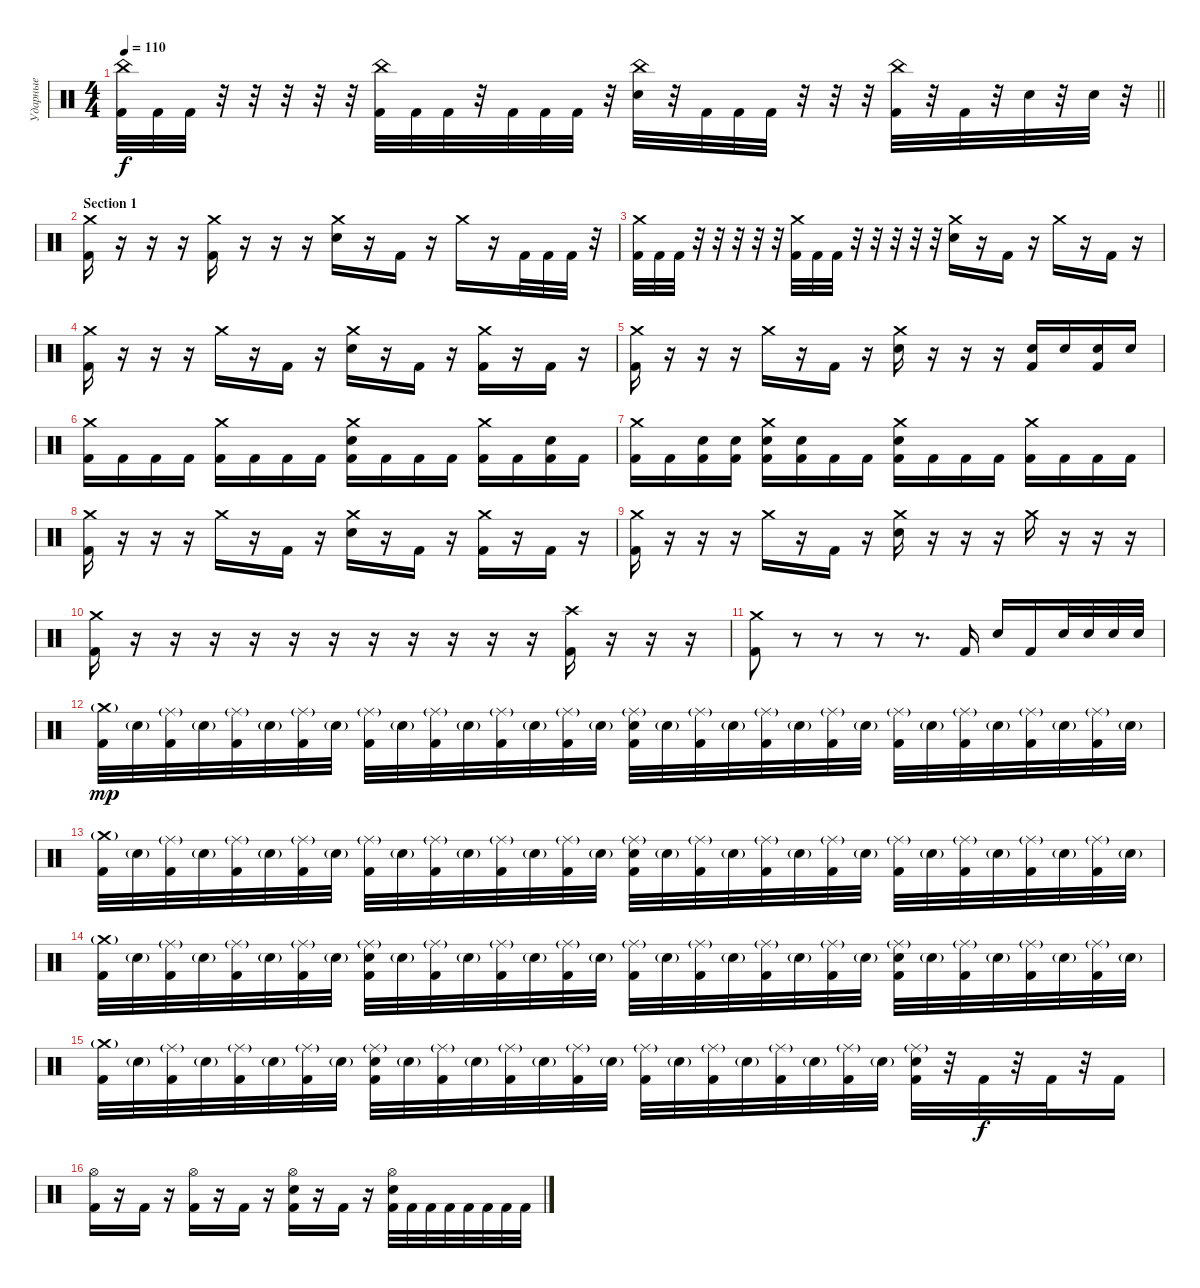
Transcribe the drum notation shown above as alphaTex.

\track ("Ударные" "Ударные") {instrument percussion}
\staff {score}
\articulation defaults
\ts (4 4)
\tempo 110
\clef neutral
\barLineRight lightlight
\ks c
("Kick (hit) 2" "China (hit)").32{dy f} "Kick (hit) 2".32 "Kick (hit) 2".32 r.32 r.32 r.32 r.32 r.32 ("Kick (hit) 2" "China (hit)").32 "Kick (hit) 2".32 "Kick (hit) 2".32 r.32 "Kick (hit) 2".32 "Kick (hit) 2".32 "Kick (hit) 2".32 r.32 ("Electric Snare (hit)" "China (hit)").32 r.32 "Kick (hit) 2".32 "Kick (hit) 2".32 "Kick (hit) 2".32 r.32 r.32 r.32 ("Kick (hit) 2" "China (hit)").32 r.32 "Kick (hit) 2".32 r.32 "Electric Snare (hit)".32 r.32 "Electric Snare (hit)".32 r.32 |
\section ("" "Section 1")
("Crash medium (hit)" "Kick (hit) 2").16 r.16 r.16 r.16 ("Crash medium (hit)" "Kick (hit) 2").16 r.16 r.16 r.16 ("Crash medium (hit)" "Electric Snare (hit)").16 r.16 "Kick (hit) 2".16 r.16 "Crash medium (hit)".16 r.16 "Kick (hit) 2".32 "Kick (hit) 2".32 "Kick (hit) 2".32 r.32 |
("Crash medium (hit)" "Kick (hit) 2").32 "Kick (hit) 2".32 "Kick (hit) 2".32 r.32 r.32 r.32 r.32 r.32 ("Crash medium (hit)" "Kick (hit) 2").32 "Kick (hit) 2".32 "Kick (hit) 2".32 r.32 r.32 r.32 r.32 r.32 ("Crash medium (hit)" "Electric Snare (hit)").16 r.16 "Kick (hit) 2".16 r.16 "Crash medium (hit)".16 r.16 "Kick (hit) 2".16 r.16 |
("Crash medium (hit)" "Kick (hit) 2").16 r.16 r.16 r.16 "Crash medium (hit)".16 r.16 "Kick (hit) 2".16 r.16 ("Crash medium (hit)" "Electric Snare (hit)").16 r.16 "Kick (hit) 2".16 r.16 ("Crash medium (hit)" "Kick (hit) 2").16 r.16 "Kick (hit) 2".16 r.16 |
("Crash medium (hit)" "Kick (hit) 2").16 r.16 r.16 r.16 "Crash medium (hit)".16 r.16 "Kick (hit) 2".16 r.16 ("Crash medium (hit)" "Electric Snare (hit)").16 r.16 r.16 r.16 ("Electric Snare (hit)" "Kick (hit) 2").16 "Electric Snare (hit)".16 ("Electric Snare (hit)" "Kick (hit) 2").16 "Electric Snare (hit)".16 |
("Crash medium (hit)" "Kick (hit) 2").16 "Kick (hit) 2".16 "Kick (hit) 2".16 "Kick (hit) 2".16 ("Crash medium (hit)" "Kick (hit) 2").16 "Kick (hit) 2".16 "Kick (hit) 2".16 "Kick (hit) 2".16 ("Crash medium (hit)" "Electric Snare (hit)" "Kick (hit) 2").16 "Kick (hit) 2".16 "Kick (hit) 2".16 "Kick (hit) 2".16 ("Crash medium (hit)" "Kick (hit) 2").16 "Kick (hit) 2".16 ("Electric Snare (hit)" "Kick (hit) 2").16 "Kick (hit) 2".16 |
("Crash medium (hit)" "Kick (hit) 2").16 "Kick (hit) 2".16 ("Electric Snare (hit)" "Kick (hit) 2").16 ("Electric Snare (hit)" "Kick (hit) 2").16 ("Crash medium (hit)" "Electric Snare (hit)" "Kick (hit) 2").16 ("Electric Snare (hit)" "Kick (hit) 2").16 "Kick (hit) 2".16 "Kick (hit) 2".16 ("Crash medium (hit)" "Electric Snare (hit)" "Kick (hit) 2").16 "Kick (hit) 2".16 "Kick (hit) 2".16 "Kick (hit) 2".16 ("Crash medium (hit)" "Kick (hit) 2").16 "Kick (hit) 2".16 "Kick (hit) 2".16 "Kick (hit) 2".16 |
("Crash medium (hit)" "Kick (hit) 2").16 r.16 r.16 r.16 "Crash medium (hit)".16 r.16 "Kick (hit) 2".16 r.16 ("Crash medium (hit)" "Electric Snare (hit)").16 r.16 "Kick (hit) 2".16 r.16 ("Crash medium (hit)" "Kick (hit) 2").16 r.16 "Kick (hit) 2".16 r.16 |
("Crash medium (hit)" "Kick (hit) 2").16 r.16 r.16 r.16 "Crash medium (hit)".16 r.16 "Kick (hit) 2".16 r.16 ("Crash medium (hit)" "Electric Snare (hit)").16 r.16 r.16 r.16 "Crash medium (hit)".16 r.16 r.16 r.16 |
("Crash medium (hit)" "Kick (hit) 2").16 r.16 r.16 r.16 r.16 r.16 r.16 r.16 r.16 r.16 r.16 r.16 ("Crash high (hit)" "Kick (hit) 2").16 r.16 r.16 r.16 |
("Crash medium (hit)" "Kick (hit) 2").8 r.8 r.8 r.8 r.8{d} "Kick (hit) 2".16 "Electric Snare (hit)".16 "Kick (hit) 2".16 "Electric Snare (hit)".32 "Electric Snare (hit)".32 "Electric Snare (hit)".32 "Electric Snare (hit)".32 |
("Crash medium (hit)"{g} "Kick (hit) 2").32{dy mp} "Electric Snare (hit)"{g}.32 ("Ride (middle)"{g} "Kick (hit) 2").32 "Electric Snare (hit)"{g}.32 ("Ride (middle)"{g} "Kick (hit) 2").32 "Electric Snare (hit)"{g}.32 ("Ride (middle)"{g} "Kick (hit) 2").32 "Electric Snare (hit)"{g}.32 ("Ride (middle)"{g} "Kick (hit) 2").32 "Electric Snare (hit)"{g}.32 ("Ride (middle)"{g} "Kick (hit) 2").32 "Electric Snare (hit)"{g}.32 ("Ride (middle)"{g} "Kick (hit) 2").32 "Electric Snare (hit)"{g}.32 ("Ride (middle)"{g} "Kick (hit) 2").32 "Electric Snare (hit)"{g}.32 ("Ride (middle)"{g} "Electric Snare (hit)" "Kick (hit) 2").32 "Electric Snare (hit)"{g}.32 ("Ride (middle)"{g} "Kick (hit) 2").32 "Electric Snare (hit)"{g}.32 ("Ride (middle)"{g} "Kick (hit) 2").32 "Electric Snare (hit)"{g}.32 ("Ride (middle)"{g} "Kick (hit) 2").32 "Electric Snare (hit)"{g}.32 ("Ride (middle)"{g} "Kick (hit) 2").32 "Electric Snare (hit)"{g}.32 ("Ride (middle)"{g} "Kick (hit) 2").32 "Electric Snare (hit)"{g}.32 ("Ride (middle)"{g} "Kick (hit) 2").32 "Electric Snare (hit)"{g}.32 ("Ride (middle)"{g} "Kick (hit) 2").32 "Electric Snare (hit)"{g}.32 |
("Crash medium (hit)"{g} "Kick (hit) 2").32 "Electric Snare (hit)"{g}.32 ("Ride (middle)"{g} "Kick (hit) 2").32 "Electric Snare (hit)"{g}.32 ("Ride (middle)"{g} "Kick (hit) 2").32 "Electric Snare (hit)"{g}.32 ("Ride (middle)"{g} "Kick (hit) 2").32 "Electric Snare (hit)"{g}.32 ("Ride (middle)"{g} "Kick (hit) 2").32 "Electric Snare (hit)"{g}.32 ("Ride (middle)"{g} "Kick (hit) 2").32 "Electric Snare (hit)"{g}.32 ("Ride (middle)"{g} "Kick (hit) 2").32 "Electric Snare (hit)"{g}.32 ("Ride (middle)"{g} "Kick (hit) 2").32 "Electric Snare (hit)"{g}.32 ("Ride (middle)"{g} "Electric Snare (hit)" "Kick (hit) 2").32 "Electric Snare (hit)"{g}.32 ("Ride (middle)"{g} "Kick (hit) 2").32 "Electric Snare (hit)"{g}.32 ("Ride (middle)"{g} "Kick (hit) 2").32 "Electric Snare (hit)"{g}.32 ("Ride (middle)"{g} "Kick (hit) 2").32 "Electric Snare (hit)"{g}.32 ("Ride (middle)"{g} "Kick (hit) 2").32 "Electric Snare (hit)"{g}.32 ("Ride (middle)"{g} "Kick (hit) 2").32 "Electric Snare (hit)"{g}.32 ("Ride (middle)"{g} "Kick (hit) 2").32 "Electric Snare (hit)"{g}.32 ("Ride (middle)"{g} "Kick (hit) 2").32 "Electric Snare (hit)"{g}.32 |
("Crash medium (hit)"{g} "Kick (hit) 2").32 "Electric Snare (hit)"{g}.32 ("Ride (middle)"{g} "Kick (hit) 2").32 "Electric Snare (hit)"{g}.32 ("Ride (middle)"{g} "Kick (hit) 2").32 "Electric Snare (hit)"{g}.32 ("Ride (middle)"{g} "Kick (hit) 2").32 "Electric Snare (hit)"{g}.32 ("Ride (middle)"{g} "Electric Snare (hit)" "Kick (hit) 2").32 "Electric Snare (hit)"{g}.32 ("Ride (middle)"{g} "Kick (hit) 2").32 "Electric Snare (hit)"{g}.32 ("Ride (middle)"{g} "Kick (hit) 2").32 "Electric Snare (hit)"{g}.32 ("Ride (middle)"{g} "Kick (hit) 2").32 "Electric Snare (hit)"{g}.32 ("Ride (middle)"{g} "Kick (hit) 2").32 "Electric Snare (hit)"{g}.32 ("Ride (middle)"{g} "Kick (hit) 2").32 "Electric Snare (hit)"{g}.32 ("Ride (middle)"{g} "Kick (hit) 2").32 "Electric Snare (hit)"{g}.32 ("Ride (middle)"{g} "Kick (hit) 2").32 "Electric Snare (hit)"{g}.32 ("Ride (middle)"{g} "Electric Snare (hit)" "Kick (hit) 2").32 "Electric Snare (hit)"{g}.32 ("Ride (middle)"{g} "Kick (hit) 2").32 "Electric Snare (hit)"{g}.32 ("Ride (middle)"{g} "Kick (hit) 2").32 "Electric Snare (hit)"{g}.32 ("Ride (middle)"{g} "Kick (hit) 2").32 "Electric Snare (hit)"{g}.32 |
("Crash medium (hit)"{g} "Kick (hit) 2").32 "Electric Snare (hit)"{g}.32 ("Ride (middle)"{g} "Kick (hit) 2").32 "Electric Snare (hit)"{g}.32 ("Ride (middle)"{g} "Kick (hit) 2").32 "Electric Snare (hit)"{g}.32 ("Ride (middle)"{g} "Kick (hit) 2").32 "Electric Snare (hit)"{g}.32 ("Ride (middle)"{g} "Electric Snare (hit)" "Kick (hit) 2").32 "Electric Snare (hit)"{g}.32 ("Ride (middle)"{g} "Kick (hit) 2").32 "Electric Snare (hit)"{g}.32 ("Ride (middle)"{g} "Kick (hit) 2").32 "Electric Snare (hit)"{g}.32 ("Ride (middle)"{g} "Kick (hit) 2").32 "Electric Snare (hit)"{g}.32 ("Ride (middle)"{g} "Kick (hit) 2").32 "Electric Snare (hit)"{g}.32 ("Ride (middle)"{g} "Kick (hit) 2").32 "Electric Snare (hit)"{g}.32 ("Ride (middle)"{g} "Kick (hit) 2").32 "Electric Snare (hit)"{g}.32 ("Ride (middle)"{g} "Kick (hit) 2").32 "Electric Snare (hit)"{g}.32 ("Ride (middle)"{g} "Electric Snare (hit)" "Kick (hit) 2").32 r.32 "Kick (hit) 2".32{dy f} r.32 "Kick (hit) 2".32 r.32 "Kick (hit) 2".16 |
("Hi-Hat (open)" "Kick (hit) 2").16 r.16 "Kick (hit) 2".16 r.16 ("Hi-Hat (open)" "Kick (hit) 2").16 r.16 "Kick (hit) 2".16 r.16 ("Hi-Hat (open)" "Electric Snare (hit)" "Kick (hit) 2").16 r.16 "Kick (hit) 2".16 r.16 ("Hi-Hat (open)" "Electric Snare (hit)" "Kick (hit) 2").32 "Kick (hit) 2".32 "Kick (hit) 2".32 "Kick (hit) 2".32 "Kick (hit) 2".32 "Kick (hit) 2".32 "Kick (hit) 2".32 "Kick (hit) 2".32
